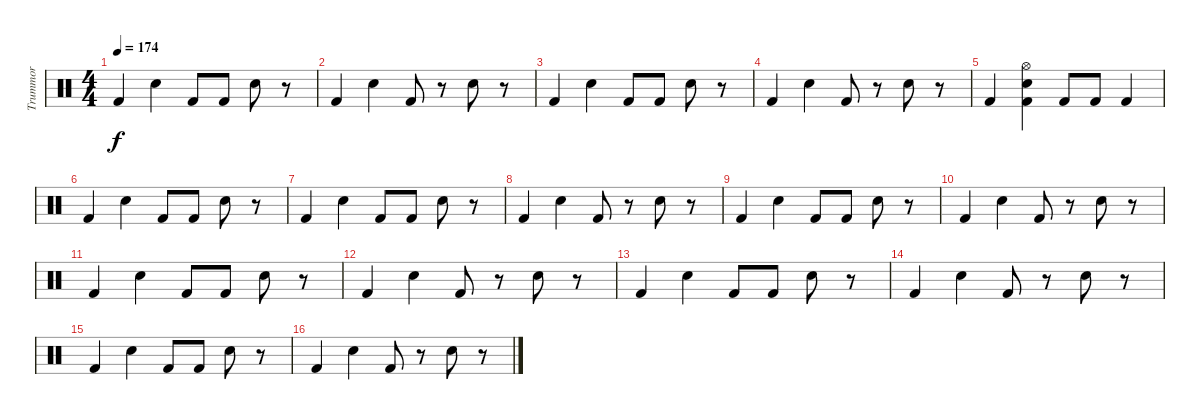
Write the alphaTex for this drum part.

\track ("Trummor" "Trummor") {instrument percussion}
\staff {score}
\articulation defaults
\ts (4 4)
\tempo 174
\clef neutral
\ks c "Kick (hit) 2".4{dy f} "Snare (hit) 2".4 "Kick (hit) 2".8 "Kick (hit) 2".8 "Snare (hit) 2".8
r.8 |
"Kick (hit) 2".4 "Snare (hit) 2".4 "Kick (hit) 2".8 r.8 "Snare (hit) 2".8 r.8 |
"Kick (hit) 2".4 "Snare (hit) 2".4 "Kick (hit) 2".8 "Kick (hit) 2".8 "Snare (hit) 2".8 r.8 |
"Kick (hit) 2".4 "Snare (hit) 2".4 "Kick (hit) 2".8 r.8 "Snare (hit) 2".8 r.8 |
"Kick (hit) 2".4 ("Kick (hit) 2" "Snare (hit) 2" "Hi-Hat (open)").4 "Kick (hit) 2".8 "Kick (hit) 2".8 "Kick (hit) 2".4 |
"Kick (hit) 2".4 "Snare (hit) 2".4 "Kick (hit) 2".8 "Kick (hit) 2".8 "Snare (hit) 2".8 r.8 |
"Kick (hit) 2".4 "Snare (hit) 2".4 "Kick (hit) 2".8 "Kick (hit) 2".8 "Snare (hit) 2".8 r.8 |
"Kick (hit) 2".4 "Snare (hit) 2".4 "Kick (hit) 2".8 r.8 "Snare (hit) 2".8 r.8 |
"Kick (hit) 2".4 "Snare (hit) 2".4 "Kick (hit) 2".8 "Kick (hit) 2".8 "Snare (hit) 2".8 r.8 |
"Kick (hit) 2".4 "Snare (hit) 2".4 "Kick (hit) 2".8 r.8 "Snare (hit) 2".8 r.8 |
"Kick (hit) 2".4 "Snare (hit) 2".4 "Kick (hit) 2".8 "Kick (hit) 2".8 "Snare (hit) 2".8 r.8 |
"Kick (hit) 2".4 "Snare (hit) 2".4 "Kick (hit) 2".8 r.8 "Snare (hit) 2".8 r.8 |
"Kick (hit) 2".4 "Snare (hit) 2".4 "Kick (hit) 2".8 "Kick (hit) 2".8 "Snare (hit) 2".8 r.8 |
"Kick (hit) 2".4 "Snare (hit) 2".4 "Kick (hit) 2".8 r.8 "Snare (hit) 2".8 r.8 |
"Kick (hit) 2".4 "Snare (hit) 2".4 "Kick (hit) 2".8 "Kick (hit) 2".8 "Snare (hit) 2".8 r.8 |
"Kick (hit) 2".4 "Snare (hit) 2".4 "Kick (hit) 2".8 r.8 "Snare (hit) 2".8 r.8
